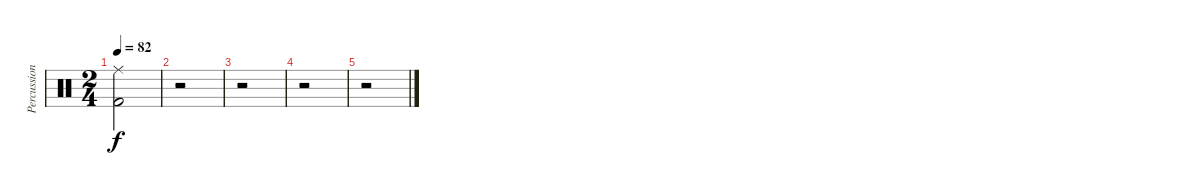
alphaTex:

\track ("Percussions" "Percussion") {instrument percussion}
\staff {score}
\articulation defaults
\ts (2 4)
\tempo 82
\clef neutral
\ks c
("Ride (middle)" "Kick (hit) 2").2{dy f} |
r.2 |
r.2 |
r.2 |
r.2
